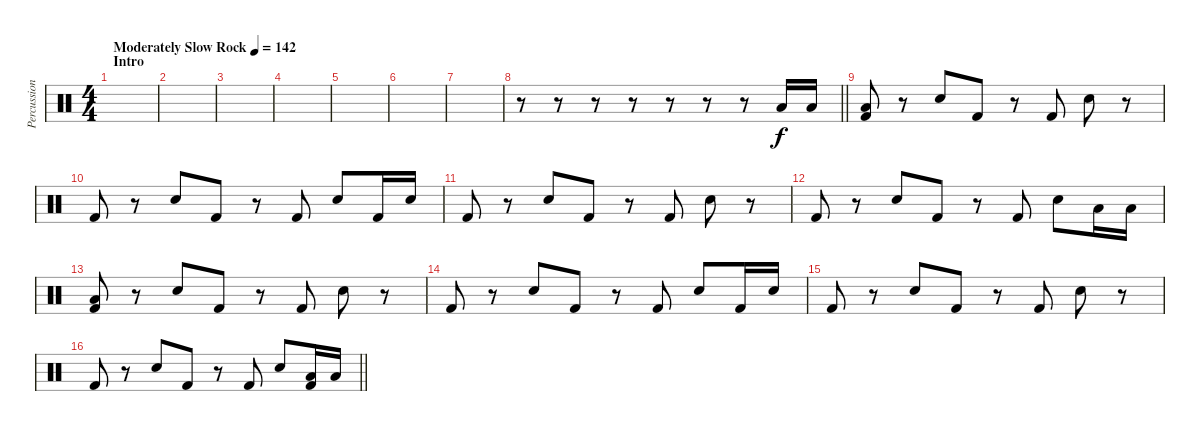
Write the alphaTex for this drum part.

\track ("Percussion" "Percussion") {instrument percussion}
\staff {score}
\articulation defaults
\ts (4 4)
\section ("" "Intro")
\tempo (142 "Moderately Slow Rock")
\clef neutral
\ks c
|
|
|
|
|
|
|
\barLineRight lightlight
r.8 r.8 r.8 r.8 r.8 r.8 r.8 "Low Tom (hit)".16 "Low Tom (hit)".16 |
("Low Tom (hit)" "Kick (hit) 2").8 r.8 "Electric Snare (hit)".8 "Kick (hit) 2".8 r.8 "Kick (hit) 2".8 "Electric Snare (hit)".8 r.8 |
"Kick (hit) 2".8 r.8 "Electric Snare (hit)".8 "Kick (hit) 2".8 r.8 "Kick (hit) 2".8 "Electric Snare (hit)".8 "Kick (hit) 2".16 "Electric Snare (hit)".16 |
"Kick (hit) 2".8 r.8 "Electric Snare (hit)".8 "Kick (hit) 2".8 r.8 "Kick (hit) 2".8 "Electric Snare (hit)".8 r.8 |
"Kick (hit) 2".8 r.8 "Electric Snare (hit)".8 "Kick (hit) 2".8 r.8 "Kick (hit) 2".8 "Electric Snare (hit)".8 "Low Tom (hit)".16 "Low Tom (hit)".16 |
("Low Tom (hit)" "Kick (hit) 2").8 r.8 "Electric Snare (hit)".8 "Kick (hit) 2".8 r.8 "Kick (hit) 2".8 "Electric Snare (hit)".8 r.8 |
"Kick (hit) 2".8 r.8 "Electric Snare (hit)".8 "Kick (hit) 2".8 r.8 "Kick (hit) 2".8 "Electric Snare (hit)".8 "Kick (hit) 2".16 "Electric Snare (hit)".16 |
"Kick (hit) 2".8 r.8 "Electric Snare (hit)".8 "Kick (hit) 2".8 r.8 "Kick (hit) 2".8 "Electric Snare (hit)".8 r.8 |
\barLineRight lightlight "Kick (hit) 2".8
r.8 "Electric Snare (hit)".8 "Kick (hit) 2".8 r.8 "Kick (hit) 2".8 "Electric Snare (hit)".8 ("Low Tom (hit)" "Kick (hit) 2").16 "Low Tom (hit)".16
